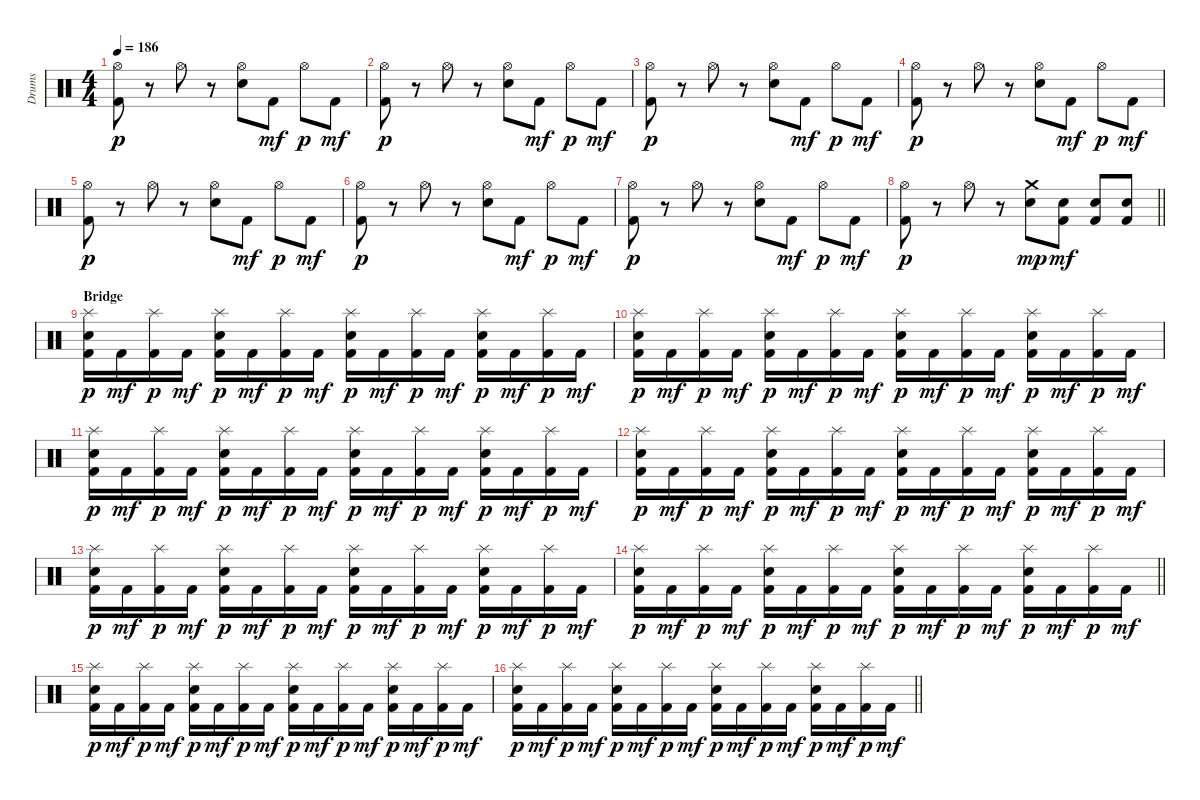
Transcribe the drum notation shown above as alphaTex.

\track ("Drums" "Drums") {instrument percussion}
\staff {score}
\articulation defaults
\ts (4 4)
\tempo 186
\clef neutral
\ks c
("Kick (hit) 2" "Hi-Hat (open)").8{dy p} r.8 "Hi-Hat (open)".8 r.8 ("Hi-Hat (open)" "Snare (hit) 2").8 "Kick (hit) 2".8{dy mf} "Hi-Hat (open)".8{dy p} "Kick (hit) 2".8{dy mf} |
("Kick (hit) 2" "Hi-Hat (open)").8{dy p} r.8 "Hi-Hat (open)".8 r.8 ("Hi-Hat (open)" "Snare (hit) 2").8 "Kick (hit) 2".8{dy mf} "Hi-Hat (open)".8{dy p} "Kick (hit) 2".8{dy mf} |
("Kick (hit) 2" "Hi-Hat (open)").8{dy p} r.8 "Hi-Hat (open)".8 r.8 ("Hi-Hat (open)" "Snare (hit) 2").8 "Kick (hit) 2".8{dy mf} "Hi-Hat (open)".8{dy p} "Kick (hit) 2".8{dy mf} |
("Kick (hit) 2" "Hi-Hat (open)").8{dy p} r.8 "Hi-Hat (open)".8 r.8 ("Hi-Hat (open)" "Snare (hit) 2").8 "Kick (hit) 2".8{dy mf} "Hi-Hat (open)".8{dy p} "Kick (hit) 2".8{dy mf} |
("Kick (hit) 2" "Hi-Hat (open)").8{dy p} r.8 "Hi-Hat (open)".8 r.8 ("Hi-Hat (open)" "Snare (hit) 2").8 "Kick (hit) 2".8{dy mf} "Hi-Hat (open)".8{dy p} "Kick (hit) 2".8{dy mf} |
("Kick (hit) 2" "Hi-Hat (open)").8{dy p} r.8 "Hi-Hat (open)".8 r.8 ("Hi-Hat (open)" "Snare (hit) 2").8 "Kick (hit) 2".8{dy mf} "Hi-Hat (open)".8{dy p} "Kick (hit) 2".8{dy mf} |
("Kick (hit) 2" "Hi-Hat (open)").8{dy p} r.8 "Hi-Hat (open)".8 r.8 ("Hi-Hat (open)" "Snare (hit) 2").8 "Kick (hit) 2".8{dy mf} "Hi-Hat (open)".8{dy p} "Kick (hit) 2".8{dy mf} |
\barLineRight lightlight
("Kick (hit) 2" "Hi-Hat (open)").8{dy p} r.8 "Hi-Hat (open)".8 r.8 ("Crash medium (hit)" "Snare (hit) 2").8{dy mp} ("Kick (hit) 2" "Snare (hit) 2").8{dy mf} ("Kick (hit) 2" "Snare (hit) 2").8 ("Kick (hit) 2" "Snare (hit) 2").8 |
\section ("" "Bridge")
("Kick (hit) 2" "Splash (hit)" "Snare (hit) 2").16{dy p} "Kick (hit) 2".16{dy mf} ("Kick (hit) 2" "Splash (hit)").16{dy p} "Kick (hit) 2".16{dy mf} ("Kick (hit) 2" "Splash (hit)" "Snare (hit) 2").16{dy p} "Kick (hit) 2".16{dy mf} ("Kick (hit) 2" "Splash (hit)").16{dy p} "Kick (hit) 2".16{dy mf} ("Kick (hit) 2" "Splash (hit)" "Snare (hit) 2").16{dy p} "Kick (hit) 2".16{dy mf} ("Kick (hit) 2" "Splash (hit)").16{dy p} "Kick (hit) 2".16{dy mf} ("Kick (hit) 2" "Splash (hit)" "Snare (hit) 2").16{dy p} "Kick (hit) 2".16{dy mf} ("Kick (hit) 2" "Splash (hit)").16{dy p} "Kick (hit) 2".16{dy mf} |
("Kick (hit) 2" "Splash (hit)" "Snare (hit) 2").16{dy p} "Kick (hit) 2".16{dy mf} ("Kick (hit) 2" "Splash (hit)").16{dy p} "Kick (hit) 2".16{dy mf} ("Kick (hit) 2" "Splash (hit)" "Snare (hit) 2").16{dy p} "Kick (hit) 2".16{dy mf} ("Kick (hit) 2" "Splash (hit)").16{dy p} "Kick (hit) 2".16{dy mf} ("Kick (hit) 2" "Splash (hit)" "Snare (hit) 2").16{dy p} "Kick (hit) 2".16{dy mf} ("Kick (hit) 2" "Splash (hit)").16{dy p} "Kick (hit) 2".16{dy mf} ("Kick (hit) 2" "Splash (hit)" "Snare (hit) 2").16{dy p} "Kick (hit) 2".16{dy mf} ("Kick (hit) 2" "Splash (hit)").16{dy p} "Kick (hit) 2".16{dy mf} |
("Kick (hit) 2" "Splash (hit)" "Snare (hit) 2").16{dy p} "Kick (hit) 2".16{dy mf} ("Kick (hit) 2" "Splash (hit)").16{dy p} "Kick (hit) 2".16{dy mf} ("Kick (hit) 2" "Splash (hit)" "Snare (hit) 2").16{dy p} "Kick (hit) 2".16{dy mf} ("Kick (hit) 2" "Splash (hit)").16{dy p} "Kick (hit) 2".16{dy mf} ("Kick (hit) 2" "Splash (hit)" "Snare (hit) 2").16{dy p} "Kick (hit) 2".16{dy mf} ("Kick (hit) 2" "Splash (hit)").16{dy p} "Kick (hit) 2".16{dy mf} ("Kick (hit) 2" "Splash (hit)" "Snare (hit) 2").16{dy p} "Kick (hit) 2".16{dy mf} ("Kick (hit) 2" "Splash (hit)").16{dy p} "Kick (hit) 2".16{dy mf} |
("Kick (hit) 2" "Splash (hit)" "Snare (hit) 2").16{dy p} "Kick (hit) 2".16{dy mf} ("Kick (hit) 2" "Splash (hit)").16{dy p} "Kick (hit) 2".16{dy mf} ("Kick (hit) 2" "Splash (hit)" "Snare (hit) 2").16{dy p} "Kick (hit) 2".16{dy mf} ("Kick (hit) 2" "Splash (hit)").16{dy p} "Kick (hit) 2".16{dy mf} ("Kick (hit) 2" "Splash (hit)" "Snare (hit) 2").16{dy p} "Kick (hit) 2".16{dy mf} ("Kick (hit) 2" "Splash (hit)").16{dy p} "Kick (hit) 2".16{dy mf} ("Kick (hit) 2" "Splash (hit)" "Snare (hit) 2").16{dy p} "Kick (hit) 2".16{dy mf} ("Kick (hit) 2" "Splash (hit)").16{dy p} "Kick (hit) 2".16{dy mf} |
("Kick (hit) 2" "Splash (hit)" "Snare (hit) 2").16{dy p} "Kick (hit) 2".16{dy mf} ("Kick (hit) 2" "Splash (hit)").16{dy p} "Kick (hit) 2".16{dy mf} ("Kick (hit) 2" "Splash (hit)" "Snare (hit) 2").16{dy p} "Kick (hit) 2".16{dy mf} ("Kick (hit) 2" "Splash (hit)").16{dy p} "Kick (hit) 2".16{dy mf} ("Kick (hit) 2" "Splash (hit)" "Snare (hit) 2").16{dy p} "Kick (hit) 2".16{dy mf} ("Kick (hit) 2" "Splash (hit)").16{dy p} "Kick (hit) 2".16{dy mf} ("Kick (hit) 2" "Splash (hit)" "Snare (hit) 2").16{dy p} "Kick (hit) 2".16{dy mf} ("Kick (hit) 2" "Splash (hit)").16{dy p} "Kick (hit) 2".16{dy mf} |
\barLineRight lightlight
("Kick (hit) 2" "Splash (hit)" "Snare (hit) 2").16{dy p} "Kick (hit) 2".16{dy mf} ("Kick (hit) 2" "Splash (hit)").16{dy p} "Kick (hit) 2".16{dy mf} ("Kick (hit) 2" "Splash (hit)" "Snare (hit) 2").16{dy p} "Kick (hit) 2".16{dy mf} ("Kick (hit) 2" "Splash (hit)").16{dy p} "Kick (hit) 2".16{dy mf} ("Kick (hit) 2" "Splash (hit)" "Snare (hit) 2").16{dy p} "Kick (hit) 2".16{dy mf} ("Kick (hit) 2" "Splash (hit)").16{dy p} "Kick (hit) 2".16{dy mf} ("Kick (hit) 2" "Splash (hit)" "Snare (hit) 2").16{dy p} "Kick (hit) 2".16{dy mf} ("Kick (hit) 2" "Splash (hit)").16{dy p} "Kick (hit) 2".16{dy mf} |
("Kick (hit) 2" "Splash (hit)" "Snare (hit) 2").16{dy p} "Kick (hit) 2".16{dy mf} ("Kick (hit) 2" "Splash (hit)").16{dy p} "Kick (hit) 2".16{dy mf} ("Kick (hit) 2" "Splash (hit)" "Snare (hit) 2").16{dy p} "Kick (hit) 2".16{dy mf} ("Kick (hit) 2" "Splash (hit)").16{dy p} "Kick (hit) 2".16{dy mf} ("Kick (hit) 2" "Splash (hit)" "Snare (hit) 2").16{dy p} "Kick (hit) 2".16{dy mf} ("Kick (hit) 2" "Splash (hit)").16{dy p} "Kick (hit) 2".16{dy mf} ("Kick (hit) 2" "Splash (hit)" "Snare (hit) 2").16{dy p} "Kick (hit) 2".16{dy mf} ("Kick (hit) 2" "Splash (hit)").16{dy p} "Kick (hit) 2".16{dy mf} |
\barLineRight lightlight
("Kick (hit) 2" "Splash (hit)" "Snare (hit) 2").16{dy p} "Kick (hit) 2".16{dy mf} ("Kick (hit) 2" "Splash (hit)").16{dy p} "Kick (hit) 2".16{dy mf} ("Kick (hit) 2" "Splash (hit)" "Snare (hit) 2").16{dy p} "Kick (hit) 2".16{dy mf} ("Kick (hit) 2" "Splash (hit)").16{dy p} "Kick (hit) 2".16{dy mf} ("Kick (hit) 2" "Splash (hit)" "Snare (hit) 2").16{dy p} "Kick (hit) 2".16{dy mf} ("Kick (hit) 2" "Splash (hit)").16{dy p} "Kick (hit) 2".16{dy mf} ("Kick (hit) 2" "Splash (hit)" "Snare (hit) 2").16{dy p} "Kick (hit) 2".16{dy mf} ("Kick (hit) 2" "Splash (hit)").16{dy p} "Kick (hit) 2".16{dy mf}
